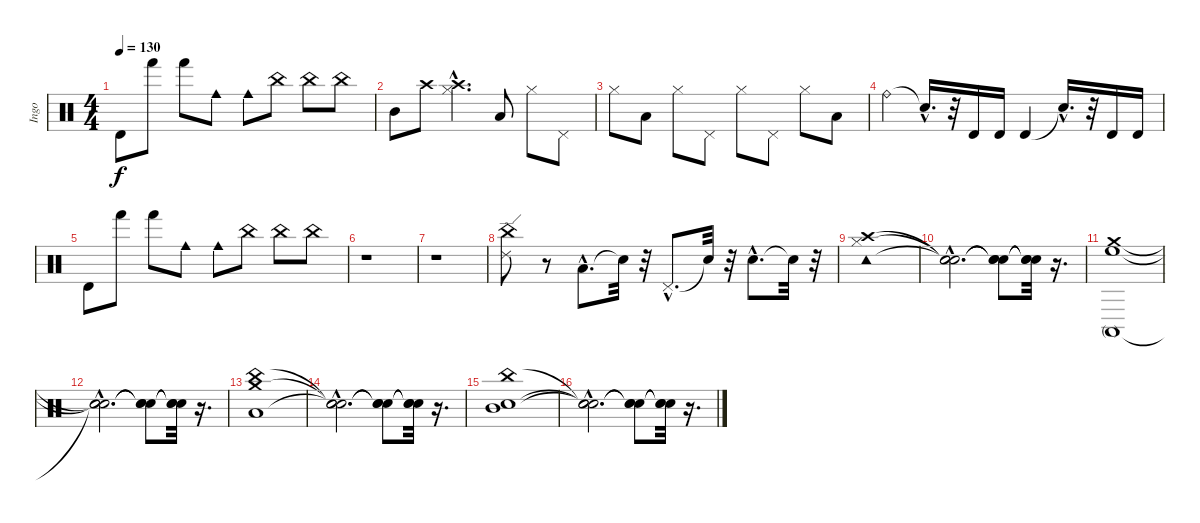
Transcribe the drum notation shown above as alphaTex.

\track ("Ingo" "Ingo") {instrument percussion}
\staff {score}
\articulation defaults
\ts (4 4)
\tempo 130
\clef neutral
\ks c "Timbale high (hit)".8{dy f} "Hand (hit)".8 "Hand (hit)".8 "Cowbell medium (hit)".8 "Cowbell medium (hit)".8 "China (hit)".8 "China (hit)".8 "China (hit)".8
|
"Mid Tom (hit)".8 "Crash high (hit)".8 ("Hi-Hat (closed)"{hac} "Crash high (hit)"{hac}).4{d} "Low Floor Tom (hit)".8 "Hi-Hat (closed)".8 "Pedal Hi-Hat (hit)".8 |
"Hi-Hat (closed)".8 "Low Floor Tom (hit)".8 "Hi-Hat (closed)".8 "Pedal Hi-Hat (hit)".8 "Hi-Hat (closed)".8 "Pedal Hi-Hat (hit)".8 "Hi-Hat (closed)".8 "Low Floor Tom (hit)".8 |
"Ride (bell)".4 "Snare (hit)"{hac t}.16{d} r.32 "Timbale high (hit)".16 "Timbale high (hit)".16 "Timbale high (hit)".4 "Snare (hit)"{hac t}.16{d} r.32 "Timbale high (hit)".16 "Timbale high (hit)".16 |
"Timbale high (hit)".8 "Hand (hit)".8 "Hand (hit)".8 "Cowbell medium (hit)".8 "Cowbell medium (hit)".8 "China (hit)".8 "China (hit)".8 "China (hit)".8 |
r.1 |
r.1 |
("China (hit)" "Ride (edge) 2").8 r.8 "Low Tom (hit)"{hac}.8{d} "Snare (hit)"{t}.32 r.32 "Pedal Hi-Hat (hit)"{hac}.8{d} "Snare (hit)"{t}.32 r.32 "Electric Snare (hit)"{hac}.8{d} "Snare (hit)"{t}.32 r.32 |
("Tambourine (hit)" "Hi-Hat (closed)" "Crash high (hit)").1 |
("Snare (hit)"{hac t} "Snare (hit)"{hac t} "Snare (hit)"{hac t}).2{d} ("Snare (hit)"{t} "Snare (hit)"{t} "Snare (hit)"{t}).8 ("Snare (hit)"{t} "Snare (hit)"{t} "Snare (hit)"{t}).32 r.16{d} |
("Conga high (mute)" "High Floor Tom (hit)" "Crash medium (hit)").1 |
("Snare (hit)"{hac t} "Snare (hit)"{hac t} "Snare (hit)"{hac t}).2{d} ("Snare (hit)"{t} "Snare (hit)"{t} "Snare (hit)"{t}).8 ("Snare (hit)"{t} "Snare (hit)"{t} "Snare (hit)"{t}).32 r.16{d} |
("Crash medium (hit)" "Low Tom (hit)" "China (hit)").1 |
("Snare (hit)"{hac t} "Snare (hit)"{hac t} "Snare (hit)"{hac t}).2{d} ("Snare (hit)"{t} "Snare (hit)"{t} "Snare (hit)"{t}).8 ("Snare (hit)"{t} "Snare (hit)"{t} "Snare (hit)"{t}).32 r.16{d} |
("China (hit)" "Electric Snare (hit)" "Mid Tom (hit)").1 |
("Snare (hit)"{hac t} "Snare (hit)"{hac t} "Snare (hit)"{hac t}).2{d} ("Snare (hit)"{t} "Snare (hit)"{t} "Snare (hit)"{t}).8 ("Snare (hit)"{t} "Snare (hit)"{t} "Snare (hit)"{t}).32 r.16{d}
